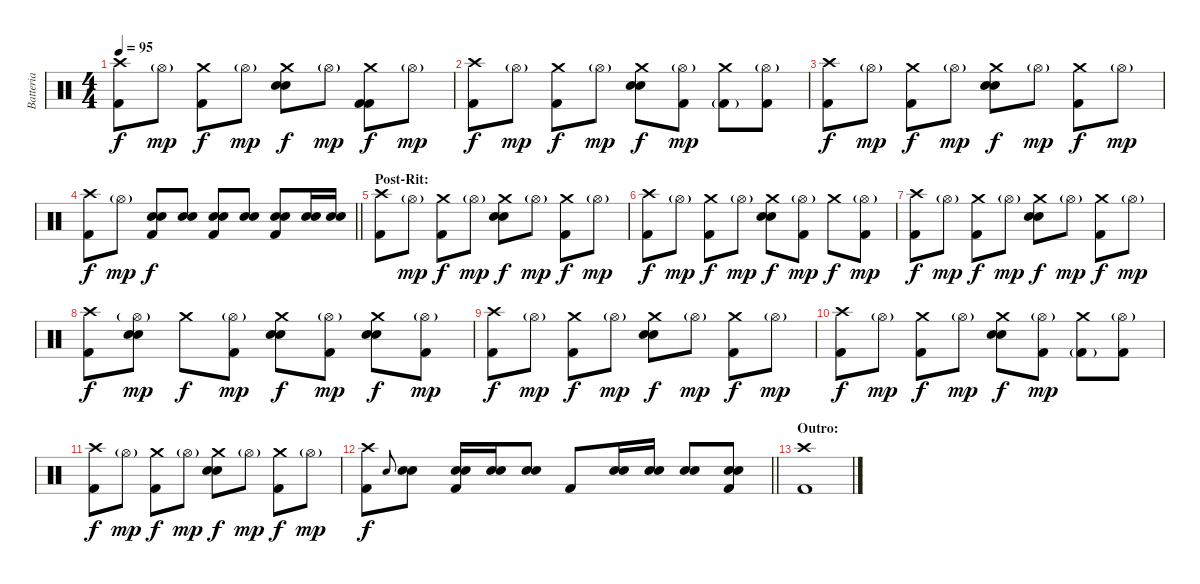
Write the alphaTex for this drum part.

\track ("Batteria" "Batteria") {instrument percussion}
\staff {score}
\articulation defaults
\ts (4 4)
\tempo 95
\clef neutral
\ks c
("Kick (hit) 2" "Crash high (hit)").8{dy f} "Hi-Hat (open)"{g}.8{dy mp} ("Kick (hit) 2" "Crash medium (hit)").8{dy f} "Hi-Hat (open)"{g}.8{dy mp} ("Snare (hit) 2" "Snare (hit) 2" "Crash medium (hit)").8{dy f} "Hi-Hat (open)"{g}.8{dy mp} ("Kick (hit) 2" "Kick (hit) 2" "Crash medium (hit)").8{dy f} "Hi-Hat (open)"{g}.8{dy mp} |
("Kick (hit) 2" "Crash high (hit)").8{dy f} "Hi-Hat (open)"{g}.8{dy mp} ("Kick (hit) 2" "Crash medium (hit)").8{dy f} "Hi-Hat (open)"{g}.8{dy mp} ("Snare (hit) 2" "Snare (hit) 2" "Crash medium (hit)").8{dy f} ("Kick (hit) 2" "Hi-Hat (open)"{g}).8{dy mp} ("Kick (hit) 2"{g} "Crash medium (hit)").8 ("Kick (hit) 2" "Hi-Hat (open)"{g}).8 |
("Kick (hit) 2" "Crash high (hit)").8{dy f} "Hi-Hat (open)"{g}.8{dy mp} ("Kick (hit) 2" "Crash medium (hit)").8{dy f} "Hi-Hat (open)"{g}.8{dy mp} ("Snare (hit) 2" "Snare (hit) 2" "Crash medium (hit)").8{dy f} "Hi-Hat (open)"{g}.8{dy mp} ("Kick (hit) 2" "Crash medium (hit)").8{dy f} "Hi-Hat (open)"{g}.8{dy mp} |
\barLineRight lightlight
("Kick (hit) 2" "Crash high (hit)").8{dy f} "Hi-Hat (open)"{g}.8{dy mp} ("Kick (hit) 2" "Snare (hit) 2" "Snare (hit) 2").8{dy f} ("Snare (hit) 2" "Snare (hit) 2").8 ("Kick (hit) 2" "Snare (hit) 2" "Snare (hit) 2").8 ("Snare (hit) 2" "Snare (hit) 2").8 ("Kick (hit) 2" "Snare (hit) 2" "Snare (hit) 2").8 ("Snare (hit) 2" "Snare (hit) 2").16 ("Snare (hit) 2" "Snare (hit) 2").16 |
\section ("" "Post-Rit:")
("Kick (hit) 2" "Crash high (hit)").8 "Hi-Hat (open)"{g}.8{dy mp} ("Kick (hit) 2" "Crash medium (hit)").8{dy f} "Hi-Hat (open)"{g}.8{dy mp} ("Snare (hit) 2" "Snare (hit) 2" "Crash medium (hit)").8{dy f} "Hi-Hat (open)"{g}.8{dy mp} ("Kick (hit) 2" "Crash medium (hit)").8{dy f} "Hi-Hat (open)"{g}.8{dy mp} |
("Kick (hit) 2" "Crash high (hit)").8{dy f} "Hi-Hat (open)"{g}.8{dy mp} ("Kick (hit) 2" "Crash medium (hit)").8{dy f} "Hi-Hat (open)"{g}.8{dy mp} ("Snare (hit) 2" "Snare (hit) 2" "Crash medium (hit)").8{dy f} ("Kick (hit) 2" "Hi-Hat (open)"{g}).8{dy mp} "Crash medium (hit)".8{dy f} ("Kick (hit) 2" "Hi-Hat (open)"{g}).8{dy mp} |
("Kick (hit) 2" "Crash high (hit)").8{dy f} "Hi-Hat (open)"{g}.8{dy mp} ("Kick (hit) 2" "Crash medium (hit)").8{dy f} "Hi-Hat (open)"{g}.8{dy mp} ("Snare (hit) 2" "Snare (hit) 2" "Crash medium (hit)").8{dy f} "Hi-Hat (open)"{g}.8{dy mp} ("Kick (hit) 2" "Crash medium (hit)").8{dy f} "Hi-Hat (open)"{g}.8{dy mp} |
("Kick (hit) 2" "Crash high (hit)").8{dy f} ("Snare (hit) 2" "Snare (hit) 2" "Hi-Hat (open)"{g}).8{dy mp} "Crash medium (hit)".8{dy f} ("Kick (hit) 2" "Hi-Hat (open)"{g}).8{dy mp} ("Snare (hit) 2" "Snare (hit) 2" "Crash medium (hit)").8{dy f} ("Kick (hit) 2" "Hi-Hat (open)"{g}).8{dy mp} ("Snare (hit) 2" "Snare (hit) 2" "Crash medium (hit)").8{dy f} ("Kick (hit) 2" "Hi-Hat (open)"{g}).8{dy mp} |
("Kick (hit) 2" "Crash high (hit)").8{dy f} "Hi-Hat (open)"{g}.8{dy mp} ("Kick (hit) 2" "Crash medium (hit)").8{dy f} "Hi-Hat (open)"{g}.8{dy mp} ("Snare (hit) 2" "Snare (hit) 2" "Crash medium (hit)").8{dy f} "Hi-Hat (open)"{g}.8{dy mp} ("Kick (hit) 2" "Crash medium (hit)").8{dy f} "Hi-Hat (open)"{g}.8{dy mp} |
("Kick (hit) 2" "Crash high (hit)").8{dy f} "Hi-Hat (open)"{g}.8{dy mp} ("Kick (hit) 2" "Crash medium (hit)").8{dy f} "Hi-Hat (open)"{g}.8{dy mp} ("Snare (hit) 2" "Snare (hit) 2" "Crash medium (hit)").8{dy f} ("Kick (hit) 2" "Hi-Hat (open)"{g}).8{dy mp} ("Kick (hit) 2"{g} "Crash medium (hit)").8 ("Kick (hit) 2" "Hi-Hat (open)"{g}).8 |
("Kick (hit) 2" "Crash high (hit)").8{dy f} "Hi-Hat (open)"{g}.8{dy mp} ("Kick (hit) 2" "Crash medium (hit)").8{dy f} "Hi-Hat (open)"{g}.8{dy mp} ("Snare (hit) 2" "Snare (hit) 2" "Crash medium (hit)").8{dy f} "Hi-Hat (open)"{g}.8{dy mp} ("Kick (hit) 2" "Crash medium (hit)").8{dy f} "Hi-Hat (open)"{g}.8{dy mp} |
\barLineRight lightlight
("Kick (hit) 2" "Crash high (hit)").8{dy f} "Snare (hit) 2".8{gr onbeat} ("Snare (hit) 2" "Snare (hit) 2").8 ("Kick (hit) 2" "Snare (hit) 2" "Snare (hit) 2").16 ("Snare (hit) 2" "Snare (hit) 2").16 ("Snare (hit) 2" "Snare (hit) 2").8 "Kick (hit) 2".8 ("Snare (hit) 2" "Snare (hit) 2").16 ("Snare (hit) 2" "Snare (hit) 2").16 ("Snare (hit) 2" "Snare (hit) 2").8 ("Kick (hit) 2" "Snare (hit) 2" "Snare (hit) 2").8 |
\section ("" "Outro:")
("Kick (hit) 2" "Crash high (hit)").1
